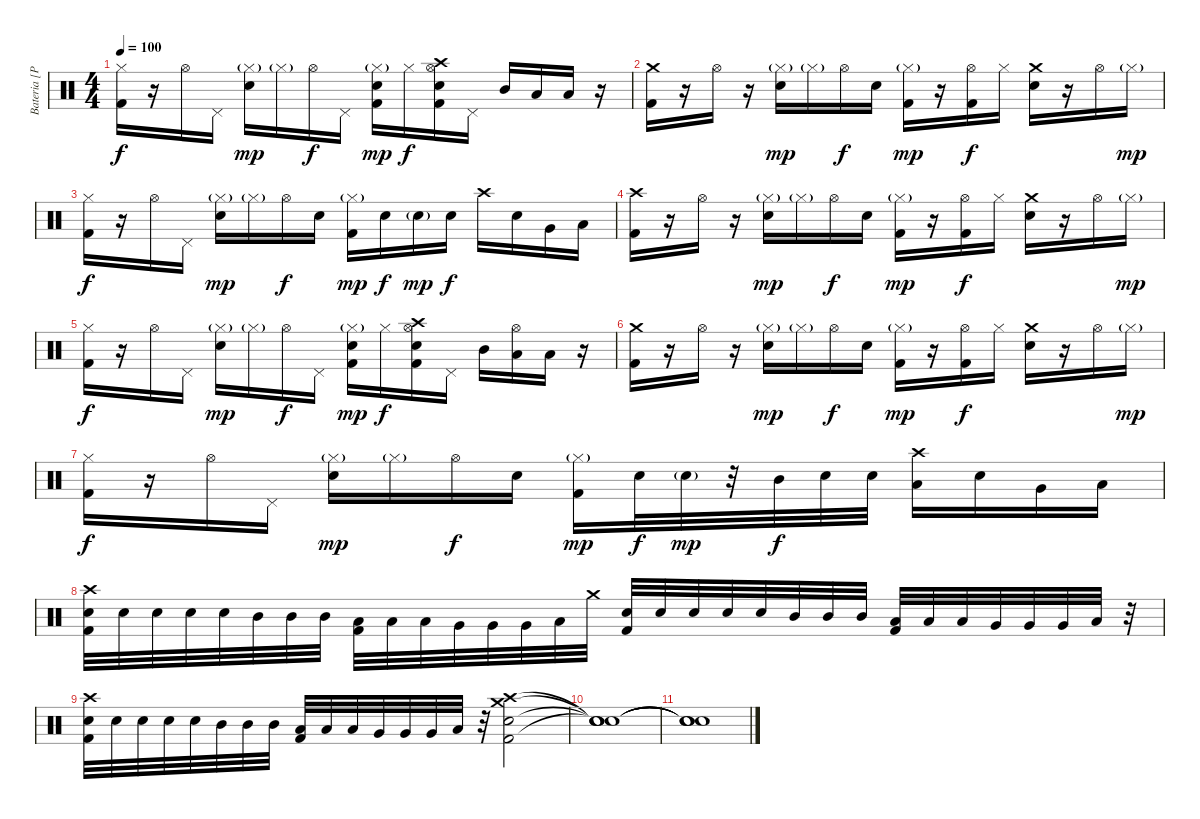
\track ("Bateria [Paul]" "Bateria [P") {instrument percussion}
\staff {score}
\articulation defaults
\ts (4 4)
\tempo 100
\clef neutral
\ks c
("Hi-Hat (closed)" "Kick (hit) 2").16{dy f} r.16 "Hi-Hat (open)".16 "Pedal Hi-Hat (hit)".16 ("Hi-Hat (closed)"{g} "Snare (hit) 2").16{dy mp} "Hi-Hat (closed)"{g}.16 "Hi-Hat (open)".16{dy f} "Pedal Hi-Hat (hit)".16 ("Hi-Hat (closed)"{g} "Snare (hit) 2" "Kick (hit) 2").16{dy mp} "Hi-Hat (closed)".16{dy f} ("Hi-Hat (open)" "Crash high (hit)" "Snare (hit) 2" "Kick (hit) 2").16 "Pedal Hi-Hat (hit)".16 "Mid Tom (hit)".16 "Low Tom (hit)".16 "Low Floor Tom (hit)".16 r.16 |
("Crash medium (hit)" "Kick (hit) 2").16 r.16 "Hi-Hat (open)".16 r.16 ("Hi-Hat (closed)"{g} "Snare (hit) 2").16{dy mp} "Hi-Hat (closed)"{g}.16 "Hi-Hat (open)".16{dy f} "Snare (hit) 2".16 ("Hi-Hat (closed)"{g} "Kick (hit) 2").16{dy mp} r.16 ("Hi-Hat (open)" "Kick (hit) 2").16{dy f} "Hi-Hat (closed)".16 ("Crash medium (hit)" "Snare (hit) 2").16 r.16 "Hi-Hat (open)".16 "Hi-Hat (closed)"{g}.16{dy mp} |
("Hi-Hat (closed)" "Kick (hit) 2").16{dy f} r.16 "Hi-Hat (open)".16 "Pedal Hi-Hat (hit)".16 ("Hi-Hat (closed)"{g} "Snare (hit) 2").16{dy mp} "Hi-Hat (closed)"{g}.16 "Hi-Hat (open)".16{dy f} "Snare (hit) 2".16 ("Hi-Hat (closed)"{g} "Kick (hit) 2").16{dy mp} "Snare (hit) 2".16{dy f} "Snare (hit) 2"{g}.16{dy mp} "Snare (hit) 2".16{dy f} "Crash high (hit)".16 "Snare (hit) 2".16 "Very Low Tom (hit)".16 "Low Floor Tom (hit)".16 |
("Crash high (hit)" "Kick (hit) 2").16 r.16 "Hi-Hat (open)".16 r.16 ("Hi-Hat (closed)"{g} "Snare (hit) 2").16{dy mp} "Hi-Hat (closed)"{g}.16 "Hi-Hat (open)".16{dy f} "Snare (hit) 2".16 ("Hi-Hat (closed)"{g} "Kick (hit) 2").16{dy mp} r.16 ("Hi-Hat (open)" "Kick (hit) 2").16{dy f} "Hi-Hat (closed)".16 ("Crash medium (hit)" "Snare (hit) 2").16 r.16 "Hi-Hat (open)".16 "Hi-Hat (closed)"{g}.16{dy mp} |
("Hi-Hat (closed)" "Kick (hit) 2").16{dy f} r.16 "Hi-Hat (open)".16 "Pedal Hi-Hat (hit)".16 ("Hi-Hat (closed)"{g} "Snare (hit) 2").16{dy mp} "Hi-Hat (closed)"{g}.16 "Hi-Hat (open)".16{dy f} "Pedal Hi-Hat (hit)".16 ("Hi-Hat (closed)"{g} "Snare (hit) 2" "Kick (hit) 2").16{dy mp} "Hi-Hat (closed)".16{dy f} ("Hi-Hat (open)" "Crash high (hit)" "Snare (hit) 2" "Kick (hit) 2").16 "Pedal Hi-Hat (hit)".16 "Mid Tom (hit)".16 ("Hi-Hat (open)" "Low Tom (hit)").16 "Low Floor Tom (hit)".16 r.16 |
("Crash medium (hit)" "Kick (hit) 2").16 r.16 "Hi-Hat (open)".16 r.16 ("Hi-Hat (closed)"{g} "Snare (hit) 2").16{dy mp} "Hi-Hat (closed)"{g}.16 "Hi-Hat (open)".16{dy f} "Snare (hit) 2".16 ("Hi-Hat (closed)"{g} "Kick (hit) 2").16{dy mp} r.16 ("Hi-Hat (open)" "Kick (hit) 2").16{dy f} "Hi-Hat (closed)".16 ("Crash medium (hit)" "Snare (hit) 2").16 r.16 "Hi-Hat (open)".16 "Hi-Hat (closed)"{g}.16{dy mp} |
("Hi-Hat (closed)" "Kick (hit) 2").16{dy f} r.16 "Hi-Hat (open)".16 "Pedal Hi-Hat (hit)".16 ("Hi-Hat (closed)"{g} "Snare (hit) 2").16{dy mp} "Hi-Hat (closed)"{g}.16 "Hi-Hat (open)".16{dy f} "Snare (hit) 2".16 ("Hi-Hat (closed)"{g} "Kick (hit) 2").16{dy mp} "Snare (hit) 2".32{dy f} "Snare (hit) 2"{g}.32{dy mp} r.32 "Mid Tom (hit)".32{dy f} "Snare (hit) 2".32 "Snare (hit) 2".32 ("Crash high (hit)" "Low Tom (hit)").16 "Snare (hit) 2".16 "Very Low Tom (hit)".16 "Low Floor Tom (hit)".16 |
("Crash high (hit)" "Snare (hit) 2" "Kick (hit) 2").32 "Snare (hit) 2".32 "Snare (hit) 2".32 "Snare (hit) 2".32 "Snare (hit) 2".32 "Mid Tom (hit)".32 "Mid Tom (hit)".32 "Mid Tom (hit)".32 ("Low Tom (hit)" "Kick (hit) 2").32 "Low Tom (hit)".32 "Low Tom (hit)".32 "Very Low Tom (hit)".32 "Very Low Tom (hit)".32 "Very Low Tom (hit)".32 "Low Floor Tom (hit)".32 "Crash medium (hit)".32 ("Snare (hit) 2" "Kick (hit) 2").32 "Snare (hit) 2".32 "Snare (hit) 2".32 "Snare (hit) 2".32 "Snare (hit) 2".32 "Mid Tom (hit)".32 "Mid Tom (hit)".32 "Mid Tom (hit)".32 ("Low Tom (hit)" "Kick (hit) 2").32 "Low Tom (hit)".32 "Low Tom (hit)".32 "Very Low Tom (hit)".32 "Very Low Tom (hit)".32 "Very Low Tom (hit)".32 "Low Floor Tom (hit)".32 r.32 |
("Crash high (hit)" "Snare (hit) 2" "Kick (hit) 2").32 "Snare (hit) 2".32 "Snare (hit) 2".32 "Snare (hit) 2".32 "Snare (hit) 2".32 "Mid Tom (hit)".32 "Mid Tom (hit)".32 "Mid Tom (hit)".32 ("Low Tom (hit)" "Kick (hit) 2").32 "Low Tom (hit)".32 "Low Tom (hit)".32 "Very Low Tom (hit)".32 "Very Low Tom (hit)".32 "Very Low Tom (hit)".32 "Low Floor Tom (hit)".32 r.32 ("Crash medium (hit)" "Crash high (hit)" "Snare (hit) 2" "Kick (hit) 2").2 |
("Snare (hit)"{t} "Snare (hit)"{t} "Snare (hit)"{t} "Snare (hit)"{t}).1 |
("Snare (hit)"{t} "Snare (hit)"{t} "Snare (hit)"{t} "Snare (hit)"{t}).1
